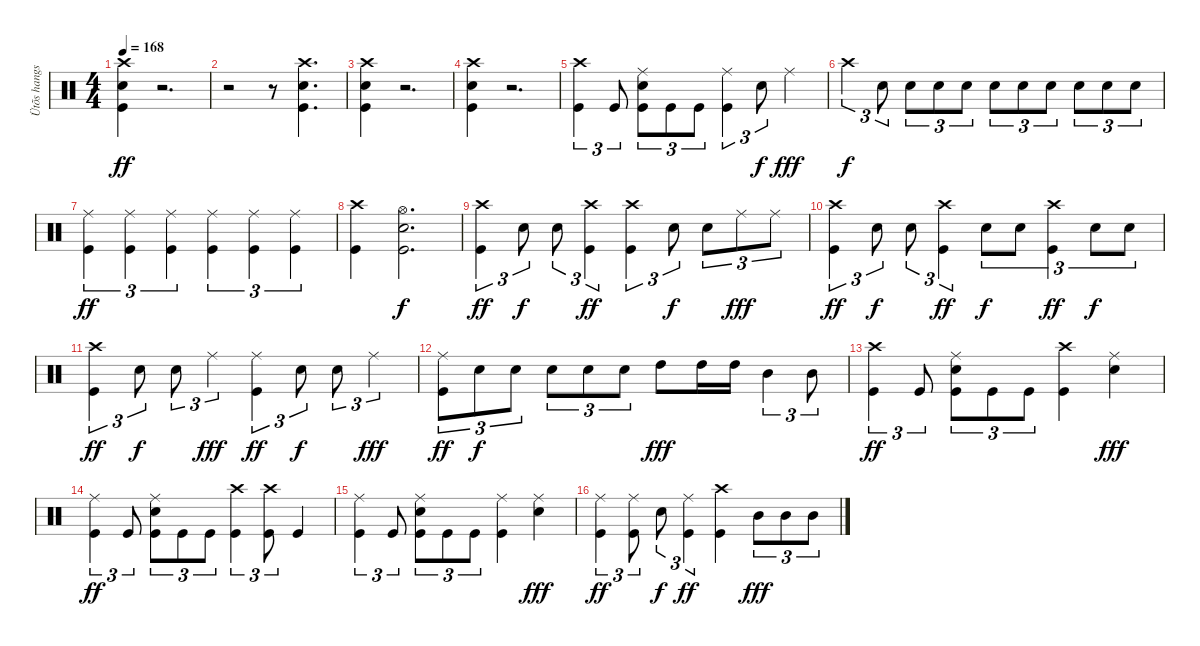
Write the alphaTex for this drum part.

\track ("Ütõs hangszer" "Ütõs hangs") {instrument percussion}
\staff {score}
\articulation defaults
\ts (4 4)
\tempo 168
\clef neutral
\ks c
("Crash high (hit)" "Electric Snare (hit)" "Kick (hit)").4{dy ff} r.2{d} |
r.2 r.8 ("Crash high (hit)" "Electric Snare (hit)" "Kick (hit)").4{d} |
("Crash high (hit)" "Electric Snare (hit)" "Kick (hit)").4 r.2{d} |
("Crash high (hit)" "Electric Snare (hit)" "Kick (hit)").4 r.2{d} |
("Crash high (hit)" "Kick (hit)").4{tu (3 2)} "Kick (hit)".8{tu (3 2)} ("Ride (middle)" "Electric Snare (hit)" "Kick (hit)").8{tu (3 2)} "Kick (hit)".8{tu (3 2)} "Kick (hit)".8{tu (3 2)} ("Ride (middle)" "Kick (hit)").4{tu (3 2)} "Electric Snare (hit)".8{tu (3 2) dy f} "Ride (middle)".4{dy fff} |
"Crash high (hit)".4{tu (3 2) dy f} "Electric Snare (hit)".8{tu (3 2)} "Electric Snare (hit)".8{tu (3 2)} "Electric Snare (hit)".8{tu (3 2)} "Electric Snare (hit)".8{tu (3 2)} "Electric Snare (hit)".8{tu (3 2)} "Electric Snare (hit)".8{tu (3 2)} "Electric Snare (hit)".8{tu (3 2)} "Electric Snare (hit)".8{tu (3 2)} "Electric Snare (hit)".8{tu (3 2)} "Electric Snare (hit)".8{tu (3 2)} |
("Ride (middle)" "Kick (hit)").4{tu (3 2) dy ff} ("Ride (middle)" "Kick (hit)").4{tu (3 2)} ("Ride (middle)" "Kick (hit)").4{tu (3 2)} ("Ride (middle)" "Kick (hit)").4{tu (3 2)} ("Ride (middle)" "Kick (hit)").4{tu (3 2)} ("Ride (middle)" "Kick (hit)").4{tu (3 2)} |
("Crash high (hit)" "Kick (hit)").4 ("Electric Snare (hit)" "Kick (hit)" "Hi-Hat (open)").2{d dy f} |
("Crash high (hit)" "Kick (hit)").4{tu (3 2) dy ff} "Electric Snare (hit)".8{tu (3 2) dy f} "Electric Snare (hit)".8{tu (3 2)} ("Crash high (hit)" "Kick (hit)").4{tu (3 2) dy ff} ("Crash high (hit)" "Kick (hit)").4{tu (3 2)} "Electric Snare (hit)".8{tu (3 2) dy f} "Electric Snare (hit)".8{tu (3 2)} "Ride (middle)".8{tu (3 2) dy fff} "Ride (middle)".8{tu (3 2)} |
("Crash high (hit)" "Kick (hit)").4{tu (3 2) dy ff} "Electric Snare (hit)".8{tu (3 2) dy f} "Electric Snare (hit)".8{tu (3 2)} ("Crash high (hit)" "Kick (hit)").4{tu (3 2) dy ff} "Electric Snare (hit)".8{tu (3 2) dy f} "Electric Snare (hit)".8{tu (3 2)} ("Crash high (hit)" "Kick (hit)").4{tu (3 2) dy ff} "Electric Snare (hit)".8{tu (3 2) dy f} "Electric Snare (hit)".8{tu (3 2)} |
("Crash high (hit)" "Kick (hit)").4{tu (3 2) dy ff} "Electric Snare (hit)".8{tu (3 2) dy f} "Electric Snare (hit)".8{tu (3 2)} "Ride (middle)".4{tu (3 2) dy fff} ("Ride (middle)" "Kick (hit)").4{tu (3 2) dy ff} "Electric Snare (hit)".8{tu (3 2) dy f} "Electric Snare (hit)".8{tu (3 2)} "Ride (middle)".4{tu (3 2) dy fff} |
("Ride (middle)" "Kick (hit)").8{tu (3 2) dy ff} "Electric Snare (hit)".8{tu (3 2) dy f} "Electric Snare (hit)".8{tu (3 2)} "Electric Snare (hit)".8{tu (3 2)} "Electric Snare (hit)".8{tu (3 2)} "Electric Snare (hit)".8{tu (3 2)} "High Tom (hit)".8{dy fff} "High Tom (hit)".16 "High Tom (hit)".16 "Mid Tom (hit)".4{tu (3 2)} "Mid Tom (hit)".8{tu (3 2)} |
("Crash high (hit)" "Kick (hit)").4{tu (3 2) dy ff} "Kick (hit)".8{tu (3 2)} ("Ride (middle)" "Electric Snare (hit)" "Kick (hit)").8{tu (3 2)} "Kick (hit)".8{tu (3 2)} "Kick (hit)".8{tu (3 2)} ("Crash high (hit)" "Kick (hit)").4 ("Ride (middle)" "Electric Snare (hit)").4{dy fff} |
("Ride (middle)" "Kick (hit)").4{tu (3 2) dy ff} "Kick (hit)".8{tu (3 2)} ("Ride (middle)" "Electric Snare (hit)" "Kick (hit)").8{tu (3 2)} "Kick (hit)".8{tu (3 2)} "Kick (hit)".8{tu (3 2)} ("Crash high (hit)" "Kick (hit)").4{tu (3 2)} ("Crash high (hit)" "Kick (hit)").8{tu (3 2)} "Kick (hit)".4 |
("Ride (middle)" "Kick (hit)").4{tu (3 2)} "Kick (hit)".8{tu (3 2)} ("Ride (middle)" "Electric Snare (hit)" "Kick (hit)").8{tu (3 2)} "Kick (hit)".8{tu (3 2)} "Kick (hit)".8{tu (3 2)} ("Ride (middle)" "Kick (hit)").4 ("Ride (middle)" "Electric Snare (hit)").4{dy fff} |
("Ride (middle)" "Kick (hit)").4{tu (3 2) dy ff} ("Ride (middle)" "Kick (hit)").8{tu (3 2)} "Electric Snare (hit)".8{tu (3 2) dy f} ("Ride (middle)" "Kick (hit)").4{tu (3 2) dy ff} ("Crash high (hit)" "Kick (hit)").4 "Mid Tom (hit)".8{tu (3 2) dy fff} "Mid Tom (hit)".8{tu (3 2)} "Mid Tom (hit)".8{tu (3 2)}
